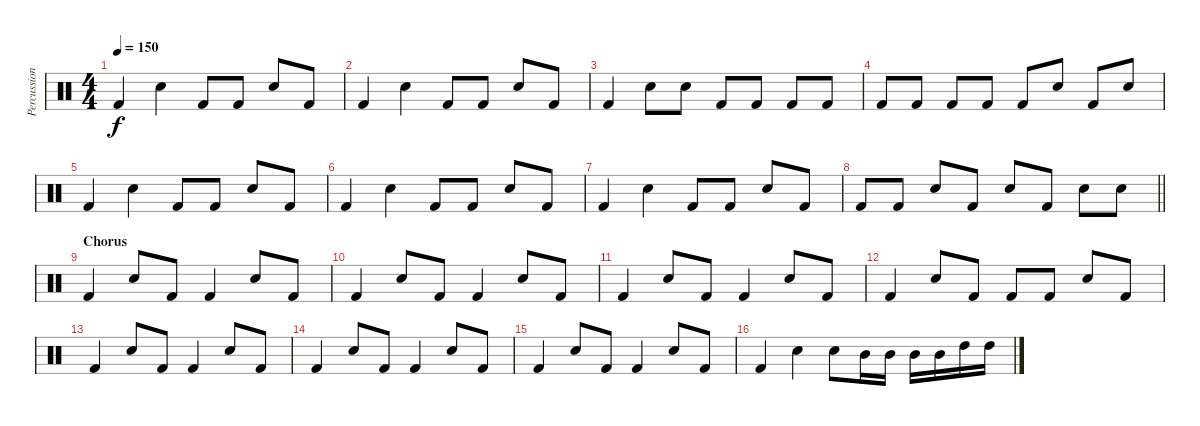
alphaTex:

\track ("Percussion" "Percussion") {instrument percussion}
\staff {score}
\articulation defaults
\ts (4 4)
\tempo 150
\clef neutral
\ks c "Kick (hit) 2".4{dy f} "Snare (hit) 2".4 "Kick (hit) 2".8 "Kick (hit) 2".8 "Snare (hit) 2".8 "Kick (hit) 2".8
|
"Kick (hit) 2".4 "Snare (hit) 2".4 "Kick (hit) 2".8 "Kick (hit) 2".8 "Snare (hit) 2".8 "Kick (hit) 2".8 |
"Kick (hit) 2".4 "Snare (hit) 2".8 "Snare (hit) 2".8 "Kick (hit) 2".8 "Kick (hit) 2".8 "Kick (hit) 2".8 "Kick (hit) 2".8 |
"Kick (hit) 2".8 "Kick (hit) 2".8 "Kick (hit) 2".8 "Kick (hit) 2".8 "Kick (hit) 2".8 "Snare (hit) 2".8 "Kick (hit) 2".8 "Snare (hit) 2".8 |
"Kick (hit) 2".4 "Snare (hit) 2".4 "Kick (hit) 2".8 "Kick (hit) 2".8 "Snare (hit) 2".8 "Kick (hit) 2".8 |
"Kick (hit) 2".4 "Snare (hit) 2".4 "Kick (hit) 2".8 "Kick (hit) 2".8 "Snare (hit) 2".8 "Kick (hit) 2".8 |
"Kick (hit) 2".4 "Snare (hit) 2".4 "Kick (hit) 2".8 "Kick (hit) 2".8 "Snare (hit) 2".8 "Kick (hit) 2".8 |
\barLineRight lightlight "Kick (hit) 2".8 "Kick (hit) 2".8 "Snare (hit) 2".8 "Kick (hit) 2".8 "Snare (hit) 2".8 "Kick (hit) 2".8 "Snare (hit) 2".8 "Snare (hit) 2".8
|
\section ("" "Chorus")
"Kick (hit) 2".4 "Snare (hit) 2".8 "Kick (hit) 2".8 "Kick (hit) 2".4 "Snare (hit) 2".8 "Kick (hit) 2".8 |
"Kick (hit) 2".4 "Snare (hit) 2".8 "Kick (hit) 2".8 "Kick (hit) 2".4 "Snare (hit) 2".8 "Kick (hit) 2".8 |
"Kick (hit) 2".4 "Snare (hit) 2".8 "Kick (hit) 2".8 "Kick (hit) 2".4 "Snare (hit) 2".8 "Kick (hit) 2".8 |
"Kick (hit) 2".4 "Snare (hit) 2".8 "Kick (hit) 2".8 "Kick (hit) 2".8 "Kick (hit) 2".8 "Snare (hit) 2".8 "Kick (hit) 2".8 |
"Kick (hit) 2".4 "Snare (hit) 2".8 "Kick (hit) 2".8 "Kick (hit) 2".4 "Snare (hit) 2".8 "Kick (hit) 2".8 |
"Kick (hit) 2".4 "Snare (hit) 2".8 "Kick (hit) 2".8 "Kick (hit) 2".4 "Snare (hit) 2".8 "Kick (hit) 2".8 |
"Kick (hit) 2".4 "Snare (hit) 2".8 "Kick (hit) 2".8 "Kick (hit) 2".4 "Snare (hit) 2".8 "Kick (hit) 2".8 |
"Kick (hit) 2".4 "Snare (hit) 2".4 "Snare (hit) 2".8 "Mid Tom (hit)".16 "Mid Tom (hit)".16 "Mid Tom (hit)".16 "Mid Tom (hit)".16 "High Tom (hit)".16 "High Tom (hit)".16
